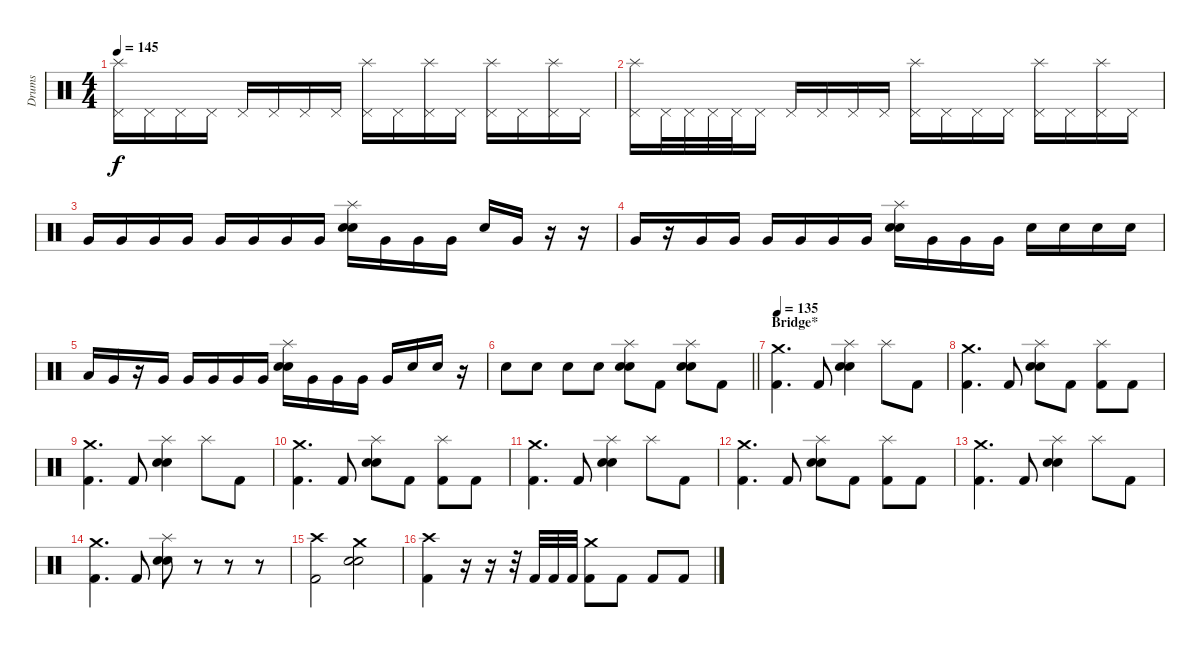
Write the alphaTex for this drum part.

\track ("Drums" "Drums") {instrument percussion}
\staff {score}
\articulation defaults
\ts (4 4)
\tempo 145
\clef neutral
\ks c
("Splash (hit)" "Pedal Hi-Hat (hit)").16{dy f} "Pedal Hi-Hat (hit)".16 "Pedal Hi-Hat (hit)".16 "Pedal Hi-Hat (hit)".16 "Pedal Hi-Hat (hit)".16 "Pedal Hi-Hat (hit)".16 "Pedal Hi-Hat (hit)".16 "Pedal Hi-Hat (hit)".16 ("Splash (hit)" "Pedal Hi-Hat (hit)").16 "Pedal Hi-Hat (hit)".16 ("Splash (hit)" "Pedal Hi-Hat (hit)").16 "Pedal Hi-Hat (hit)".16 ("Splash (hit)" "Pedal Hi-Hat (hit)").16 "Pedal Hi-Hat (hit)".16 ("Splash (hit)" "Pedal Hi-Hat (hit)").16 "Pedal Hi-Hat (hit)".16 |
("Splash (hit)" "Pedal Hi-Hat (hit)").16 "Pedal Hi-Hat (hit)".32 "Pedal Hi-Hat (hit)".32 "Pedal Hi-Hat (hit)".32 "Pedal Hi-Hat (hit)".32 "Pedal Hi-Hat (hit)".16 "Pedal Hi-Hat (hit)".16 "Pedal Hi-Hat (hit)".16 "Pedal Hi-Hat (hit)".16 "Pedal Hi-Hat (hit)".16 ("Splash (hit)" "Pedal Hi-Hat (hit)").16 "Pedal Hi-Hat (hit)".16 "Pedal Hi-Hat (hit)".16 "Pedal Hi-Hat (hit)".16 ("Splash (hit)" "Pedal Hi-Hat (hit)").16 "Pedal Hi-Hat (hit)".16 ("Splash (hit)" "Pedal Hi-Hat (hit)").16 "Pedal Hi-Hat (hit)".16 |
"Very Low Tom (hit)".16 "Very Low Tom (hit)".16 "Very Low Tom (hit)".16 "Very Low Tom (hit)".16 "Very Low Tom (hit)".16 "Very Low Tom (hit)".16 "Very Low Tom (hit)".16 "Very Low Tom (hit)".16 ("Splash (hit)" "Electric Snare (hit)" "Snare (hit) 2").16 "Very Low Tom (hit)".16 "Very Low Tom (hit)".16 "Very Low Tom (hit)".16 "Snare (hit) 2".16 "Very Low Tom (hit)".16 r.16 r.16 |
"Very Low Tom (hit)".16 r.16 "Very Low Tom (hit)".16 "Very Low Tom (hit)".16 "Very Low Tom (hit)".16 "Very Low Tom (hit)".16 "Very Low Tom (hit)".16 "Very Low Tom (hit)".16 ("Splash (hit)" "Electric Snare (hit)" "Snare (hit) 2").16 "Very Low Tom (hit)".16 "Very Low Tom (hit)".16 "Very Low Tom (hit)".16 "Snare (hit) 2".16 "Snare (hit) 2".16 "Snare (hit) 2".16 "Snare (hit) 2".16 |
"Low Tom (hit)".16 "Very Low Tom (hit)".16 r.16 "Very Low Tom (hit)".16 "Very Low Tom (hit)".16 "Very Low Tom (hit)".16 "Very Low Tom (hit)".16 "Very Low Tom (hit)".16 ("Splash (hit)" "Electric Snare (hit)" "Snare (hit) 2").16 "Very Low Tom (hit)".16 "Very Low Tom (hit)".16 "Very Low Tom (hit)".16 "Very Low Tom (hit)".16 "Snare (hit) 2".16 "Snare (hit) 2".16 r.16 |
\barLineRight lightlight "Snare (hit) 2".8 "Snare (hit) 2".8 "Snare (hit) 2".8 "Snare (hit) 2".8
("Splash (hit)" "Electric Snare (hit)" "Snare (hit) 2").8 "Kick (hit) 2".8 ("Splash (hit)" "Electric Snare (hit)" "Snare (hit) 2").8 "Kick (hit) 2".8 |
\section ("" "Bridge*")
\tempo 135
("Crash medium (hit)" "Kick (hit) 2").4{d} "Kick (hit) 2".8 ("Splash (hit)" "Electric Snare (hit)" "Snare (hit) 2").4 "Splash (hit)".8 "Kick (hit) 2".8 |
("Crash medium (hit)" "Kick (hit) 2").4{d} "Kick (hit) 2".8 ("Splash (hit)" "Electric Snare (hit)" "Snare (hit) 2").8 "Kick (hit) 2".8 ("Splash (hit)" "Kick (hit) 2").8 "Kick (hit) 2".8 |
("Crash medium (hit)" "Kick (hit) 2").4{d} "Kick (hit) 2".8 ("Splash (hit)" "Electric Snare (hit)" "Snare (hit) 2").4 "Splash (hit)".8 "Kick (hit) 2".8 |
("Crash medium (hit)" "Kick (hit) 2").4{d} "Kick (hit) 2".8 ("Splash (hit)" "Electric Snare (hit)" "Snare (hit) 2").8 "Kick (hit) 2".8 ("Splash (hit)" "Kick (hit) 2").8 "Kick (hit) 2".8 |
("Crash medium (hit)" "Kick (hit) 2").4{d} "Kick (hit) 2".8 ("Splash (hit)" "Electric Snare (hit)" "Snare (hit) 2").4 "Splash (hit)".8 "Kick (hit) 2".8 |
("Crash medium (hit)" "Kick (hit) 2").4{d} "Kick (hit) 2".8 ("Splash (hit)" "Electric Snare (hit)" "Snare (hit) 2").8 "Kick (hit) 2".8 ("Splash (hit)" "Kick (hit) 2").8 "Kick (hit) 2".8 |
("Crash medium (hit)" "Kick (hit) 2").4{d} "Kick (hit) 2".8 ("Splash (hit)" "Electric Snare (hit)" "Snare (hit) 2").4 "Splash (hit)".8 "Kick (hit) 2".8 |
("Crash medium (hit)" "Kick (hit) 2").4{d} "Kick (hit) 2".8 ("Splash (hit)" "Electric Snare (hit)" "Snare (hit) 2").8 r.8 r.8 r.8 |
("Crash high (hit)" "Kick (hit) 2").2 ("Crash medium (hit)" "Electric Snare (hit)" "Snare (hit) 2").2 |
("Crash high (hit)" "Kick (hit) 2").4 r.16 r.16 r.32 "Kick (hit) 2".32 "Kick (hit) 2".32 "Kick (hit) 2".32 ("Crash medium (hit)" "Kick (hit) 2").8 "Kick (hit) 2".8 "Kick (hit) 2".8 "Kick (hit) 2".8
